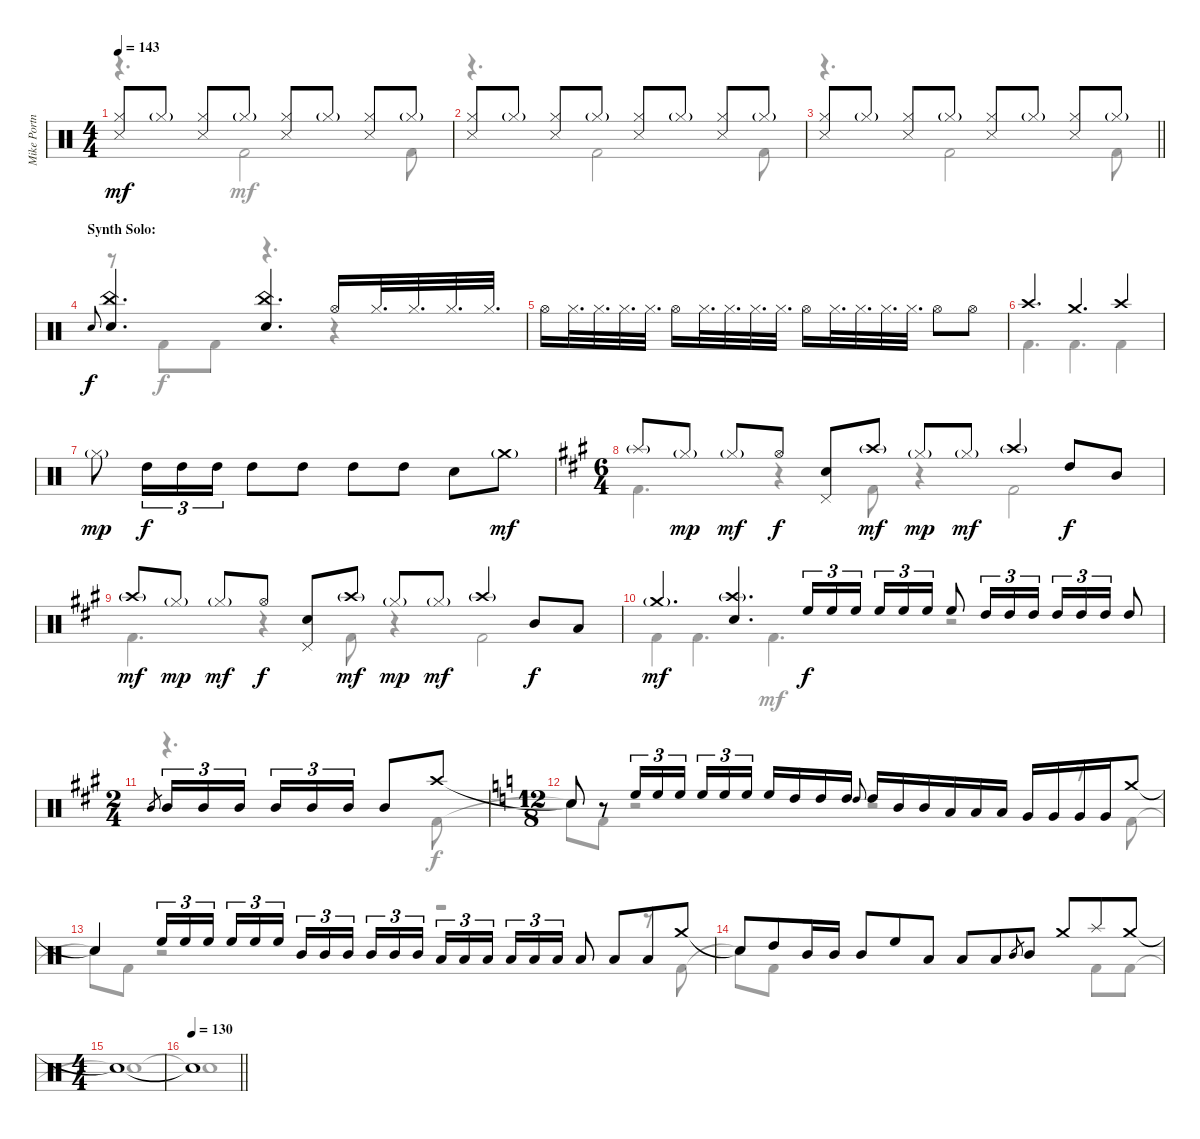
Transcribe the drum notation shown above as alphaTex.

\track ("Mike Portnoy - Drum" "Mike Portn") {instrument percussion}
\staff {score}
\articulation defaults
\voice
\ts (4 4)
\tempo 143
\clef neutral
\ks c
("Hi-Hat (closed)" "Snare (side stick) 3").8{dy mf} "Hi-Hat (closed)"{g}.8 ("Hi-Hat (closed)" "Snare (side stick) 3").8 "Hi-Hat (closed)"{g}.8 ("Hi-Hat (closed)" "Snare (side stick) 3").8 "Hi-Hat (closed)"{g}.8 ("Hi-Hat (closed)" "Snare (side stick) 3").8 "Hi-Hat (closed)"{g}.8 |
("Hi-Hat (closed)" "Snare (side stick) 3").8 "Hi-Hat (closed)"{g}.8 ("Hi-Hat (closed)" "Snare (side stick) 3").8 "Hi-Hat (closed)"{g}.8 ("Hi-Hat (closed)" "Snare (side stick) 3").8 "Hi-Hat (closed)"{g}.8 ("Hi-Hat (closed)" "Snare (side stick) 3").8 "Hi-Hat (closed)"{g}.8 |
\barLineRight lightlight
("Hi-Hat (closed)" "Snare (side stick) 3").8 "Hi-Hat (closed)"{g}.8 ("Hi-Hat (closed)" "Snare (side stick) 3").8 "Hi-Hat (closed)"{g}.8 ("Hi-Hat (closed)" "Snare (side stick) 3").8 "Hi-Hat (closed)"{g}.8 ("Hi-Hat (closed)" "Snare (side stick) 3").8 "Hi-Hat (closed)"{g}.8 |
\section ("" "Synth Solo:")
"Electric Snare (hit)".8{gr onbeat dy f} ("China (hit)" "Electric Snare (hit)").4{d} ("China (hit)" "Electric Snare (hit)").4{d} "Hi-Hat (open)".16 "Hi-Hat (closed)".32{d} "Hi-Hat (closed)".32{d} "Hi-Hat (closed)".32{d} "Hi-Hat (closed)".32{d} |
"Hi-Hat (open)".16 "Hi-Hat (closed)".32{d} "Hi-Hat (closed)".32{d} "Hi-Hat (closed)".32{d} "Hi-Hat (closed)".32{d} "Hi-Hat (open)".16 "Hi-Hat (closed)".32{d} "Hi-Hat (closed)".32{d} "Hi-Hat (closed)".32{d} "Hi-Hat (closed)".32{d} "Hi-Hat (open)".16 "Hi-Hat (closed)".32{d} "Hi-Hat (closed)".32{d} "Hi-Hat (closed)".32{d} "Hi-Hat (closed)".32{d} "Hi-Hat (open)".8 "Hi-Hat (open)".8 |
"Crash high (hit)".4{d} "Crash medium (hit)".4{d} "Crash high (hit)".4 |
"Hi-Hat (closed)"{g}.8{dy mp} "High Tom (hit)".16{tu (3 2) dy f} "High Tom (hit)".16{tu (3 2)} "High Tom (hit)".16{tu (3 2)} "High Tom (hit)".8 "High Tom (hit)".8 "High Tom (hit)".8 "High Tom (hit)".8 "Electric Snare (hit)".8 "Crash medium (hit)"{g}.8{dy mf} |
\ts (6 4)
\ks a "Splash (hit)"{g}.8 "Hi-Hat (closed)"{g}.8{dy mp} "Hi-Hat (closed)"{g}.8{dy mf} "Hi-Hat (open)".8{dy f}
("Pedal Hi-Hat (hit)" "Electric Snare (hit)").8 "Crash high (hit)"{g}.8{dy mf} "Hi-Hat (closed)"{g}.8{dy mp} "Hi-Hat (closed)"{g}.8{dy mf} "Crash high (hit)"{g}.4 "High Tom (hit)".8{dy f} "Mid Tom (hit)".8 |
"Crash high (hit)"{g}.8{dy mf} "Hi-Hat (closed)"{g}.8{dy mp} "Hi-Hat (closed)"{g}.8{dy mf} "Hi-Hat (open)".8{dy f} ("Pedal Hi-Hat (hit)" "Electric Snare (hit)").8 "Crash high (hit)"{g}.8{dy mf} "Hi-Hat (closed)"{g}.8{dy mp} "Hi-Hat (closed)"{g}.8{dy mf} "Crash high (hit)"{g}.4 "Mid Tom (hit)".8{dy f} "Low Tom (hit)".8 |
"Crash medium (hit)"{g}.4{d dy mf} ("Crash high (hit)"{g} "Electric Snare (hit)").4{d} "High Floor Tom (hit)".16{tu (3 2) dy f} "High Floor Tom (hit)".16{tu (3 2)} "High Floor Tom (hit)".16{tu (3 2) beam splitsecondary} "High Floor Tom (hit)".16{tu (3 2)} "High Floor Tom (hit)".16{tu (3 2)} "High Floor Tom (hit)".16{tu (3 2)} "High Floor Tom (hit)".8 "High Tom (hit)".16{tu (3 2)} "High Tom (hit)".16{tu (3 2)} "High Tom (hit)".16{tu (3 2) beam splitsecondary} "High Tom (hit)".16{tu (3 2)} "High Tom (hit)".16{tu (3 2)} "High Tom (hit)".16{tu (3 2)} "High Tom (hit)".8 |
\ts (2 4)
"Mid Tom (hit)".8{gr} "Mid Tom (hit)".16{tu (3 2)} "Mid Tom (hit)".16{tu (3 2)} "Mid Tom (hit)".16{tu (3 2) beam splitsecondary} "Mid Tom (hit)".16{tu (3 2)} "Mid Tom (hit)".16{tu (3 2)} "Mid Tom (hit)".16{tu (3 2)} "Mid Tom (hit)".8 "Crash high (hit)".8 |
\ts (12 8)
\ks c "Snare (hit)"{t}.8
r.8 "High Floor Tom (hit)".16{tu (3 2)} "High Floor Tom (hit)".16{tu (3 2)} "High Floor Tom (hit)".16{tu (3 2)} "High Floor Tom (hit)".16{tu (3 2)} "High Floor Tom (hit)".16{tu (3 2)} "High Floor Tom (hit)".16{tu (3 2) beam splitsecondary} "High Floor Tom (hit)".16 "High Tom (hit)".16 "High Tom (hit)".16 "High Tom (hit)".16 "High Tom (hit)".8{gr onbeat} "High Tom (hit)".16 "Mid Tom (hit)".16 "Mid Tom (hit)".16 "Low Tom (hit)".16 "Low Tom (hit)".16 "Low Tom (hit)".16 "Very Low Tom (hit)".16 "Very Low Tom (hit)".16 "Very Low Tom (hit)".16 "Very Low Tom (hit)".16 "Crash medium (hit)".8 |
"Snare (hit)"{t}.4 "High Floor Tom (hit)".16{tu (3 2)} "High Floor Tom (hit)".16{tu (3 2)} "High Floor Tom (hit)".16{tu (3 2)} "High Floor Tom (hit)".16{tu (3 2)} "High Floor Tom (hit)".16{tu (3 2)} "High Floor Tom (hit)".16{tu (3 2) beam splitsecondary} "Mid Tom (hit)".16{tu (3 2)} "Mid Tom (hit)".16{tu (3 2)} "Mid Tom (hit)".16{tu (3 2) beam splitsecondary} "Mid Tom (hit)".16{tu (3 2)} "Mid Tom (hit)".16{tu (3 2)} "Mid Tom (hit)".16{tu (3 2)} "Low Tom (hit)".16{tu (3 2)} "Low Tom (hit)".16{tu (3 2)} "Low Tom (hit)".16{tu (3 2) beam splitsecondary} "Low Tom (hit)".16{tu (3 2)} "Low Tom (hit)".16{tu (3 2)} "Low Tom (hit)".16{tu (3 2)} "Low Tom (hit)".8 "Low Tom (hit)".8 "Low Tom (hit)".8 "Crash medium (hit)".8 |
"Snare (hit)"{t}.8 "High Tom (hit)".8 "Mid Tom (hit)".16 "Mid Tom (hit)".16 "Mid Tom (hit)".8 "High Floor Tom (hit)".8 "Low Tom (hit)".8 "Low Tom (hit)".8 "Low Tom (hit)".8 "Mid Tom (hit)".8{gr} "Mid Tom (hit)".8 "Crash medium (hit)".8 "Splash (hit)".8 "Crash medium (hit)".8 |
\ts (4 4)
"Snare (hit)"{t}.1 |
\tempo 130
\barLineRight lightlight "Snare (hit)"{t}.1
\voice
\clef neutral
\ottava regular
\simile none
\ks c
r.4{d dy mf} "Kick (hit) 2".2 "Kick (hit) 2".8 |
r.4{d} "Kick (hit) 2".2 "Kick (hit) 2".8 |
\barLineRight lightlight
r.4{d} "Kick (hit) 2".2 "Kick (hit) 2".8 |
r.8 "Kick (hit) 2".8{dy f beam merge} "Kick (hit) 2".8 r.4{d} r.4 |
|
"Kick (hit) 2".4{d} "Kick (hit) 2".4{d} "Kick (hit) 2".4 |
|
\ks a "Kick (hit) 2".4{d}
r.4 "Kick (hit) 2".8 r.4 "Kick (hit) 2".2 |
"Kick (hit) 2".4{d} r.4 "Kick (hit) 2".8 r.4 "Kick (hit) 2".2 |
"Kick (hit) 2".4 "Kick (hit) 2".4{d} "Kick (hit) 2".4{d dy mf} r.2 |
r.4{d} "Kick (hit) 2".8{dy f} |
\ks c "Snare (hit)"{t}.8 "Kick (hit) 2".8
r.2 r.2 r.8 "Kick (hit) 2".8 |
"Snare (hit)"{t}.8 "Kick (hit) 2".8 r.2 r.2 r.8 "Kick (hit) 2".8 |
"Snare (hit)"{t}.8 "Kick (hit) 2".8 r.1 "Kick (hit) 2".8 "Kick (hit) 2".8 |
"Snare (hit)"{t}.1 |
\barLineRight lightlight "Snare (hit)"{t}.1
